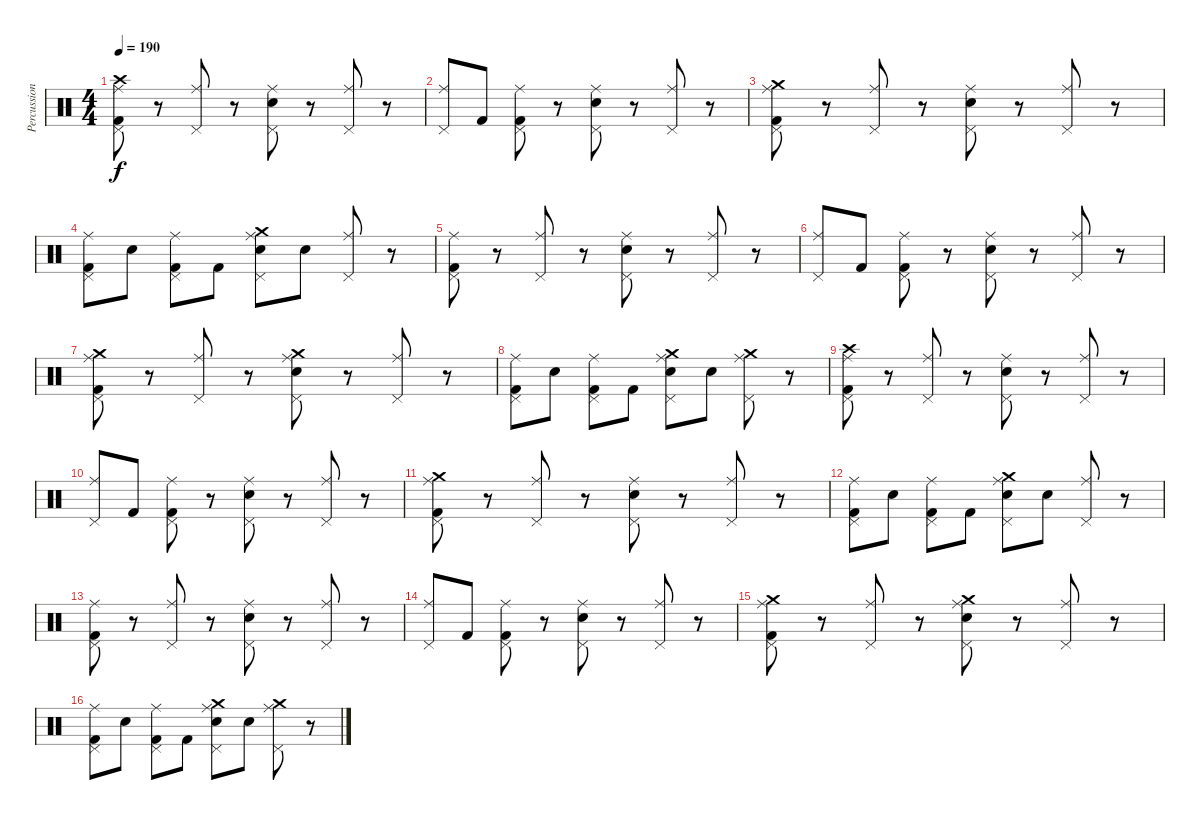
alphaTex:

\track ("Percussion" "Percussion") {instrument percussion}
\staff {score}
\articulation defaults
\ts (4 4)
\tempo 190
\clef neutral
\ks c
("Crash high (hit)" "Ride (middle)" "Pedal Hi-Hat (hit)" "Kick (hit) 2").8{dy f} r.8 ("Ride (middle)" "Pedal Hi-Hat (hit)").8 r.8 ("Ride (middle)" "Pedal Hi-Hat (hit)" "Snare (hit) 2").8 r.8 ("Ride (middle)" "Pedal Hi-Hat (hit)").8 r.8 |
("Ride (middle)" "Pedal Hi-Hat (hit)").8 "Kick (hit) 2".8 ("Ride (middle)" "Pedal Hi-Hat (hit)" "Kick (hit) 2").8 r.8 ("Ride (middle)" "Pedal Hi-Hat (hit)" "Snare (hit) 2").8 r.8 ("Ride (middle)" "Pedal Hi-Hat (hit)").8 r.8 |
("Crash medium (hit)" "Ride (middle)" "Pedal Hi-Hat (hit)" "Kick (hit) 2").8 r.8 ("Ride (middle)" "Pedal Hi-Hat (hit)").8 r.8 ("Ride (middle)" "Pedal Hi-Hat (hit)" "Snare (hit) 2").8 r.8 ("Ride (middle)" "Pedal Hi-Hat (hit)").8 r.8 |
("Ride (middle)" "Pedal Hi-Hat (hit)" "Kick (hit) 2").8 "Snare (hit) 2".8 ("Ride (middle)" "Pedal Hi-Hat (hit)" "Kick (hit) 2").8 "Kick (hit) 2".8 ("Crash medium (hit)" "Ride (middle)" "Pedal Hi-Hat (hit)" "Snare (hit) 2").8 "Snare (hit) 2".8 ("Ride (middle)" "Pedal Hi-Hat (hit)").8 r.8 |
("Ride (middle)" "Pedal Hi-Hat (hit)" "Kick (hit) 2").8 r.8 ("Ride (middle)" "Pedal Hi-Hat (hit)").8 r.8 ("Ride (middle)" "Pedal Hi-Hat (hit)" "Snare (hit) 2").8 r.8 ("Ride (middle)" "Pedal Hi-Hat (hit)").8 r.8 |
("Ride (middle)" "Pedal Hi-Hat (hit)").8 "Kick (hit) 2".8 ("Ride (middle)" "Pedal Hi-Hat (hit)" "Kick (hit) 2").8 r.8 ("Ride (middle)" "Pedal Hi-Hat (hit)" "Snare (hit) 2").8 r.8 ("Ride (middle)" "Pedal Hi-Hat (hit)").8 r.8 |
("Crash medium (hit)" "Ride (middle)" "Pedal Hi-Hat (hit)" "Kick (hit) 2").8 r.8 ("Ride (middle)" "Pedal Hi-Hat (hit)").8 r.8 ("Crash medium (hit)" "Ride (middle)" "Pedal Hi-Hat (hit)" "Snare (hit) 2").8 r.8 ("Ride (middle)" "Pedal Hi-Hat (hit)").8 r.8 |
("Ride (middle)" "Pedal Hi-Hat (hit)" "Kick (hit) 2").8 "Snare (hit) 2".8 ("Ride (middle)" "Pedal Hi-Hat (hit)" "Kick (hit) 2").8 "Kick (hit) 2".8 ("Crash medium (hit)" "Ride (middle)" "Pedal Hi-Hat (hit)" "Snare (hit) 2").8 "Snare (hit) 2".8 ("Crash medium (hit)" "Ride (middle)" "Pedal Hi-Hat (hit)").8 r.8 |
("Crash high (hit)" "Ride (middle)" "Pedal Hi-Hat (hit)" "Kick (hit) 2").8 r.8 ("Ride (middle)" "Pedal Hi-Hat (hit)").8 r.8 ("Ride (middle)" "Pedal Hi-Hat (hit)" "Snare (hit) 2").8 r.8 ("Ride (middle)" "Pedal Hi-Hat (hit)").8 r.8 |
("Ride (middle)" "Pedal Hi-Hat (hit)").8 "Kick (hit) 2".8 ("Ride (middle)" "Pedal Hi-Hat (hit)" "Kick (hit) 2").8 r.8 ("Ride (middle)" "Pedal Hi-Hat (hit)" "Snare (hit) 2").8 r.8 ("Ride (middle)" "Pedal Hi-Hat (hit)").8 r.8 |
("Crash medium (hit)" "Ride (middle)" "Pedal Hi-Hat (hit)" "Kick (hit) 2").8 r.8 ("Ride (middle)" "Pedal Hi-Hat (hit)").8 r.8 ("Ride (middle)" "Pedal Hi-Hat (hit)" "Snare (hit) 2").8 r.8 ("Ride (middle)" "Pedal Hi-Hat (hit)").8 r.8 |
("Ride (middle)" "Pedal Hi-Hat (hit)" "Kick (hit) 2").8 "Snare (hit) 2".8 ("Ride (middle)" "Pedal Hi-Hat (hit)" "Kick (hit) 2").8 "Kick (hit) 2".8 ("Crash medium (hit)" "Ride (middle)" "Pedal Hi-Hat (hit)" "Snare (hit) 2").8 "Snare (hit) 2".8 ("Ride (middle)" "Pedal Hi-Hat (hit)").8 r.8 |
("Ride (middle)" "Pedal Hi-Hat (hit)" "Kick (hit) 2").8 r.8 ("Ride (middle)" "Pedal Hi-Hat (hit)").8 r.8 ("Ride (middle)" "Pedal Hi-Hat (hit)" "Snare (hit) 2").8 r.8 ("Ride (middle)" "Pedal Hi-Hat (hit)").8 r.8 |
("Ride (middle)" "Pedal Hi-Hat (hit)").8 "Kick (hit) 2".8 ("Ride (middle)" "Pedal Hi-Hat (hit)" "Kick (hit) 2").8 r.8 ("Ride (middle)" "Pedal Hi-Hat (hit)" "Snare (hit) 2").8 r.8 ("Ride (middle)" "Pedal Hi-Hat (hit)").8 r.8 |
("Crash medium (hit)" "Ride (middle)" "Pedal Hi-Hat (hit)" "Kick (hit) 2").8 r.8 ("Ride (middle)" "Pedal Hi-Hat (hit)").8 r.8 ("Crash medium (hit)" "Ride (middle)" "Pedal Hi-Hat (hit)" "Snare (hit) 2").8 r.8 ("Ride (middle)" "Pedal Hi-Hat (hit)").8 r.8 |
("Ride (middle)" "Pedal Hi-Hat (hit)" "Kick (hit) 2").8 "Snare (hit) 2".8 ("Ride (middle)" "Pedal Hi-Hat (hit)" "Kick (hit) 2").8 "Kick (hit) 2".8 ("Crash medium (hit)" "Ride (middle)" "Pedal Hi-Hat (hit)" "Snare (hit) 2").8 "Snare (hit) 2".8 ("Crash medium (hit)" "Ride (middle)" "Pedal Hi-Hat (hit)").8 r.8
